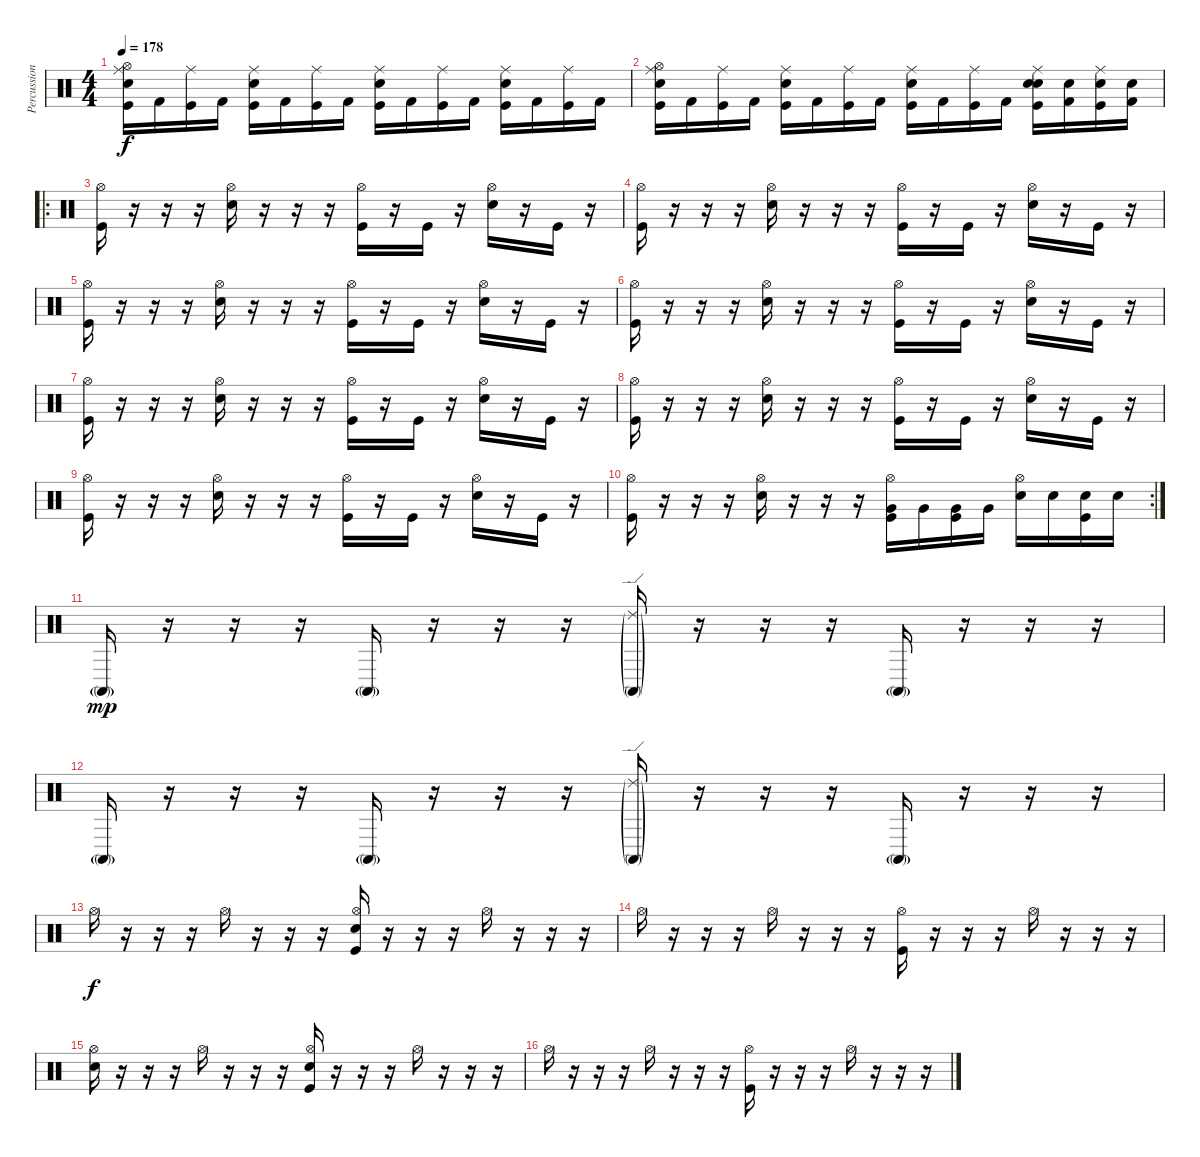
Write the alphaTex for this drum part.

\track ("Percussions" "Percussion") {instrument percussion}
\staff {score}
\articulation defaults
\ts (4 4)
\tempo 178
\clef neutral
\ks c
("Electric Snare (hit)" "Ride (middle)" "Hi-Hat (open)" "Kick (hit)").16{dy f} "Kick (hit) 2".16 ("Ride (middle)" "Kick (hit)").16 "Kick (hit) 2".16 ("Electric Snare (hit)" "Ride (middle)" "Kick (hit)").16 "Kick (hit) 2".16 ("Ride (middle)" "Kick (hit)").16 "Kick (hit) 2".16 ("Electric Snare (hit)" "Ride (middle)" "Kick (hit)").16 "Kick (hit) 2".16 ("Ride (middle)" "Kick (hit)").16 "Kick (hit) 2".16 ("Electric Snare (hit)" "Ride (middle)" "Kick (hit)").16 "Kick (hit) 2".16 ("Ride (middle)" "Kick (hit)").16 "Kick (hit) 2".16 |
("Electric Snare (hit)" "Ride (middle)" "Hi-Hat (open)" "Kick (hit)").16 "Kick (hit) 2".16 ("Ride (middle)" "Kick (hit)").16 "Kick (hit) 2".16 ("Electric Snare (hit)" "Ride (middle)" "Kick (hit)").16 "Kick (hit) 2".16 ("Ride (middle)" "Kick (hit)").16 "Kick (hit) 2".16 ("Electric Snare (hit)" "Ride (middle)" "Kick (hit)").16 "Kick (hit) 2".16 ("Ride (middle)" "Kick (hit)").16 "Kick (hit) 2".16 ("Electric Snare (hit)" "Ride (middle)" "Snare (hit) 2" "Kick (hit)").16 ("Snare (hit) 2" "Kick (hit) 2").16 ("Ride (middle)" "Snare (hit) 2" "Kick (hit)").16 ("Snare (hit) 2" "Kick (hit) 2").16 |
\ro
("Hi-Hat (open)" "Kick (hit)").16 r.16 r.16 r.16 ("Hi-Hat (open)" "Snare (hit) 2").16 r.16 r.16 r.16 ("Hi-Hat (open)" "Kick (hit)").16 r.16 "Kick (hit)".16 r.16 ("Hi-Hat (open)" "Snare (hit) 2").16 r.16 "Kick (hit)".16 r.16 |
("Hi-Hat (open)" "Kick (hit)").16 r.16 r.16 r.16 ("Hi-Hat (open)" "Snare (hit) 2").16 r.16 r.16 r.16 ("Hi-Hat (open)" "Kick (hit)").16 r.16 "Kick (hit)".16 r.16 ("Hi-Hat (open)" "Snare (hit) 2").16 r.16 "Kick (hit)".16 r.16 |
("Hi-Hat (open)" "Kick (hit)").16 r.16 r.16 r.16 ("Hi-Hat (open)" "Snare (hit) 2").16 r.16 r.16 r.16 ("Hi-Hat (open)" "Kick (hit)").16 r.16 "Kick (hit)".16 r.16 ("Hi-Hat (open)" "Snare (hit) 2").16 r.16 "Kick (hit)".16 r.16 |
("Hi-Hat (open)" "Kick (hit)").16 r.16 r.16 r.16 ("Hi-Hat (open)" "Snare (hit) 2").16 r.16 r.16 r.16 ("Hi-Hat (open)" "Kick (hit)").16 r.16 "Kick (hit)".16 r.16 ("Hi-Hat (open)" "Snare (hit) 2").16 r.16 "Kick (hit)".16 r.16 |
("Hi-Hat (open)" "Kick (hit)").16 r.16 r.16 r.16 ("Hi-Hat (open)" "Snare (hit) 2").16 r.16 r.16 r.16 ("Hi-Hat (open)" "Kick (hit)").16 r.16 "Kick (hit)".16 r.16 ("Hi-Hat (open)" "Snare (hit) 2").16 r.16 "Kick (hit)".16 r.16 |
("Hi-Hat (open)" "Kick (hit)").16 r.16 r.16 r.16 ("Hi-Hat (open)" "Snare (hit) 2").16 r.16 r.16 r.16 ("Hi-Hat (open)" "Kick (hit)").16 r.16 "Kick (hit)".16 r.16 ("Hi-Hat (open)" "Snare (hit) 2").16 r.16 "Kick (hit)".16 r.16 |
("Hi-Hat (open)" "Kick (hit)").16 r.16 r.16 r.16 ("Hi-Hat (open)" "Snare (hit) 2").16 r.16 r.16 r.16 ("Hi-Hat (open)" "Kick (hit)").16 r.16 "Kick (hit)".16 r.16 ("Hi-Hat (open)" "Snare (hit) 2").16 r.16 "Kick (hit)".16 r.16 |
\rc 2
("Hi-Hat (open)" "Kick (hit)").16 r.16 r.16 r.16 ("Hi-Hat (open)" "Snare (hit) 2").16 r.16 r.16 r.16 ("Hi-Hat (open)" "Very Low Tom (hit)" "Kick (hit)").16 "Very Low Tom (hit)".16 ("Very Low Tom (hit)" "Kick (hit)").16 "Very Low Tom (hit)".16 ("Hi-Hat (open)" "Snare (hit) 2").16 "Snare (hit) 2".16 ("Snare (hit) 2" "Kick (hit)").16 "Snare (hit) 2".16 |
"Conga high (mute)"{g}.16{dy mp} r.16 r.16 r.16 "Conga high (mute)"{g}.16 r.16 r.16 r.16 ("Conga high (mute)"{g} "Ride (edge) 2"{g}).16 r.16 r.16 r.16 "Conga high (mute)"{g}.16 r.16 r.16 r.16 |
"Conga high (mute)"{g}.16 r.16 r.16 r.16 "Conga high (mute)"{g}.16 r.16 r.16 r.16 ("Conga high (mute)"{g} "Ride (edge) 2"{g}).16 r.16 r.16 r.16 "Conga high (mute)"{g}.16 r.16 r.16 r.16 |
"Hi-Hat (open)".16{dy f} r.16 r.16 r.16 "Hi-Hat (open)".16 r.16 r.16 r.16 ("Hi-Hat (open)" "Electric Snare (hit)" "Kick (hit)").16 r.16 r.16 r.16 "Hi-Hat (open)".16 r.16 r.16 r.16 |
"Hi-Hat (open)".16 r.16 r.16 r.16 "Hi-Hat (open)".16 r.16 r.16 r.16 ("Hi-Hat (open)" "Kick (hit)").16 r.16 r.16 r.16 "Hi-Hat (open)".16 r.16 r.16 r.16 |
("Hi-Hat (open)" "Snare (hit) 2").16 r.16 r.16 r.16 "Hi-Hat (open)".16 r.16 r.16 r.16 ("Hi-Hat (open)" "Electric Snare (hit)" "Kick (hit)").16 r.16 r.16 r.16 "Hi-Hat (open)".16 r.16 r.16 r.16 |
"Hi-Hat (open)".16 r.16 r.16 r.16 "Hi-Hat (open)".16 r.16 r.16 r.16 ("Hi-Hat (open)" "Kick (hit)").16 r.16 r.16 r.16 "Hi-Hat (open)".16 r.16 r.16 r.16
